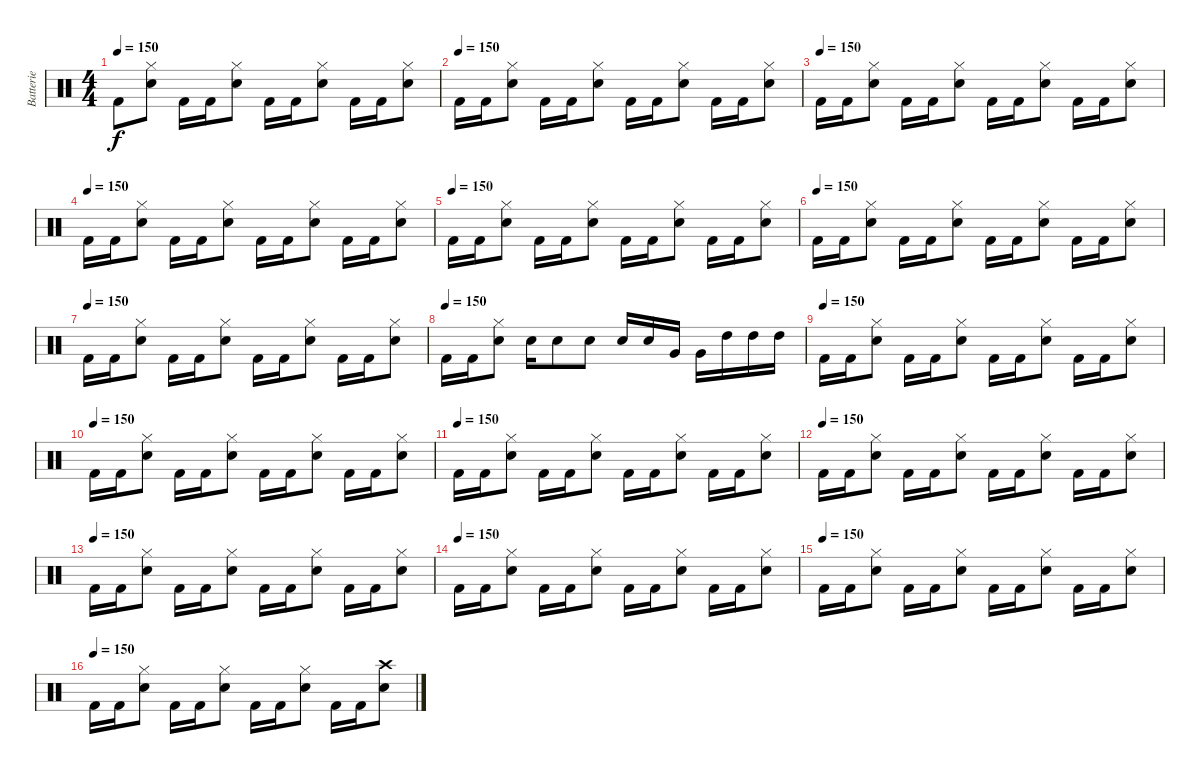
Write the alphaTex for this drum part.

\track ("Batterie" "Batterie") {instrument percussion}
\staff {score}
\articulation defaults
\ts (4 4)
\tempo 150
\clef neutral
\ks c "Kick (hit) 2".8{dy f}
("Hi-Hat (closed)" "Snare (hit) 2").8 "Kick (hit) 2".16 "Kick (hit) 2".16 ("Hi-Hat (closed)" "Snare (hit) 2").8 "Kick (hit) 2".16 "Kick (hit) 2".16 ("Hi-Hat (closed)" "Snare (hit) 2").8 "Kick (hit) 2".16 "Kick (hit) 2".16 ("Hi-Hat (closed)" "Snare (hit) 2").8 |
\tempo (150)
"Kick (hit) 2".16 "Kick (hit) 2".16 ("Hi-Hat (closed)" "Snare (hit) 2").8 "Kick (hit) 2".16 "Kick (hit) 2".16 ("Hi-Hat (closed)" "Snare (hit) 2").8 "Kick (hit) 2".16 "Kick (hit) 2".16 ("Hi-Hat (closed)" "Snare (hit) 2").8 "Kick (hit) 2".16 "Kick (hit) 2".16 ("Hi-Hat (closed)" "Snare (hit) 2").8 |
\tempo (150)
"Kick (hit) 2".16 "Kick (hit) 2".16 ("Hi-Hat (closed)" "Snare (hit) 2").8 "Kick (hit) 2".16 "Kick (hit) 2".16 ("Hi-Hat (closed)" "Snare (hit) 2").8 "Kick (hit) 2".16 "Kick (hit) 2".16 ("Hi-Hat (closed)" "Snare (hit) 2").8 "Kick (hit) 2".16 "Kick (hit) 2".16 ("Hi-Hat (closed)" "Snare (hit) 2").8 |
\tempo (150)
"Kick (hit) 2".16 "Kick (hit) 2".16 ("Hi-Hat (closed)" "Snare (hit) 2").8 "Kick (hit) 2".16 "Kick (hit) 2".16 ("Hi-Hat (closed)" "Snare (hit) 2").8 "Kick (hit) 2".16 "Kick (hit) 2".16 ("Hi-Hat (closed)" "Snare (hit) 2").8 "Kick (hit) 2".16 "Kick (hit) 2".16 ("Hi-Hat (closed)" "Snare (hit) 2").8 |
\tempo (150)
"Kick (hit) 2".16 "Kick (hit) 2".16 ("Hi-Hat (closed)" "Snare (hit) 2").8 "Kick (hit) 2".16 "Kick (hit) 2".16 ("Hi-Hat (closed)" "Snare (hit) 2").8 "Kick (hit) 2".16 "Kick (hit) 2".16 ("Hi-Hat (closed)" "Snare (hit) 2").8 "Kick (hit) 2".16 "Kick (hit) 2".16 ("Hi-Hat (closed)" "Snare (hit) 2").8 |
\tempo (150)
"Kick (hit) 2".16 "Kick (hit) 2".16 ("Hi-Hat (closed)" "Snare (hit) 2").8 "Kick (hit) 2".16 "Kick (hit) 2".16 ("Hi-Hat (closed)" "Snare (hit) 2").8 "Kick (hit) 2".16 "Kick (hit) 2".16 ("Hi-Hat (closed)" "Snare (hit) 2").8 "Kick (hit) 2".16 "Kick (hit) 2".16 ("Hi-Hat (closed)" "Snare (hit) 2").8 |
\tempo (150)
"Kick (hit) 2".16 "Kick (hit) 2".16 ("Hi-Hat (closed)" "Snare (hit) 2").8 "Kick (hit) 2".16 "Kick (hit) 2".16 ("Hi-Hat (closed)" "Snare (hit) 2").8 "Kick (hit) 2".16 "Kick (hit) 2".16 ("Hi-Hat (closed)" "Snare (hit) 2").8 "Kick (hit) 2".16 "Kick (hit) 2".16 ("Hi-Hat (closed)" "Snare (hit) 2").8 |
\tempo (150)
"Kick (hit) 2".16 "Kick (hit) 2".16 ("Hi-Hat (closed)" "Snare (hit) 2").8 "Snare (hit) 2".16 "Snare (hit) 2".8 "Snare (hit) 2".8 "Snare (hit) 2".16 "Snare (hit) 2".16 "Very Low Tom (hit)".16 "Very Low Tom (hit)".16 "High Tom (hit)".16 "High Tom (hit)".16 "High Tom (hit)".16 |
\tempo (150)
"Kick (hit) 2".16 "Kick (hit) 2".16 ("Hi-Hat (closed)" "Snare (hit) 2").8 "Kick (hit) 2".16 "Kick (hit) 2".16 ("Hi-Hat (closed)" "Snare (hit) 2").8 "Kick (hit) 2".16 "Kick (hit) 2".16 ("Hi-Hat (closed)" "Snare (hit) 2").8 "Kick (hit) 2".16 "Kick (hit) 2".16 ("Hi-Hat (closed)" "Snare (hit) 2").8 |
\tempo (150)
"Kick (hit) 2".16 "Kick (hit) 2".16 ("Hi-Hat (closed)" "Snare (hit) 2").8 "Kick (hit) 2".16 "Kick (hit) 2".16 ("Hi-Hat (closed)" "Snare (hit) 2").8 "Kick (hit) 2".16 "Kick (hit) 2".16 ("Hi-Hat (closed)" "Snare (hit) 2").8 "Kick (hit) 2".16 "Kick (hit) 2".16 ("Hi-Hat (closed)" "Snare (hit) 2").8 |
\tempo (150)
"Kick (hit) 2".16 "Kick (hit) 2".16 ("Hi-Hat (closed)" "Snare (hit) 2").8 "Kick (hit) 2".16 "Kick (hit) 2".16 ("Hi-Hat (closed)" "Snare (hit) 2").8 "Kick (hit) 2".16 "Kick (hit) 2".16 ("Hi-Hat (closed)" "Snare (hit) 2").8 "Kick (hit) 2".16 "Kick (hit) 2".16 ("Hi-Hat (closed)" "Snare (hit) 2").8 |
\tempo (150)
"Kick (hit) 2".16 "Kick (hit) 2".16 ("Hi-Hat (closed)" "Snare (hit) 2").8 "Kick (hit) 2".16 "Kick (hit) 2".16 ("Hi-Hat (closed)" "Snare (hit) 2").8 "Kick (hit) 2".16 "Kick (hit) 2".16 ("Hi-Hat (closed)" "Snare (hit) 2").8 "Kick (hit) 2".16 "Kick (hit) 2".16 ("Hi-Hat (closed)" "Snare (hit) 2").8 |
\tempo (150)
"Kick (hit) 2".16 "Kick (hit) 2".16 ("Hi-Hat (closed)" "Snare (hit) 2").8 "Kick (hit) 2".16 "Kick (hit) 2".16 ("Hi-Hat (closed)" "Snare (hit) 2").8 "Kick (hit) 2".16 "Kick (hit) 2".16 ("Hi-Hat (closed)" "Snare (hit) 2").8 "Kick (hit) 2".16 "Kick (hit) 2".16 ("Hi-Hat (closed)" "Snare (hit) 2").8 |
\tempo (150)
"Kick (hit) 2".16 "Kick (hit) 2".16 ("Hi-Hat (closed)" "Snare (hit) 2").8 "Kick (hit) 2".16 "Kick (hit) 2".16 ("Hi-Hat (closed)" "Snare (hit) 2").8 "Kick (hit) 2".16 "Kick (hit) 2".16 ("Hi-Hat (closed)" "Snare (hit) 2").8 "Kick (hit) 2".16 "Kick (hit) 2".16 ("Hi-Hat (closed)" "Snare (hit) 2").8 |
\tempo (150)
"Kick (hit) 2".16 "Kick (hit) 2".16 ("Hi-Hat (closed)" "Snare (hit) 2").8 "Kick (hit) 2".16 "Kick (hit) 2".16 ("Hi-Hat (closed)" "Snare (hit) 2").8 "Kick (hit) 2".16 "Kick (hit) 2".16 ("Hi-Hat (closed)" "Snare (hit) 2").8 "Kick (hit) 2".16 "Kick (hit) 2".16 ("Hi-Hat (closed)" "Snare (hit) 2").8 |
\tempo (150)
"Kick (hit) 2".16 "Kick (hit) 2".16 ("Hi-Hat (closed)" "Snare (hit) 2").8 "Kick (hit) 2".16 "Kick (hit) 2".16 ("Hi-Hat (closed)" "Snare (hit) 2").8 "Kick (hit) 2".16 "Kick (hit) 2".16 ("Hi-Hat (closed)" "Snare (hit) 2").8 "Kick (hit) 2".16 "Kick (hit) 2".16 ("Crash high (hit)" "Snare (hit) 2").8
